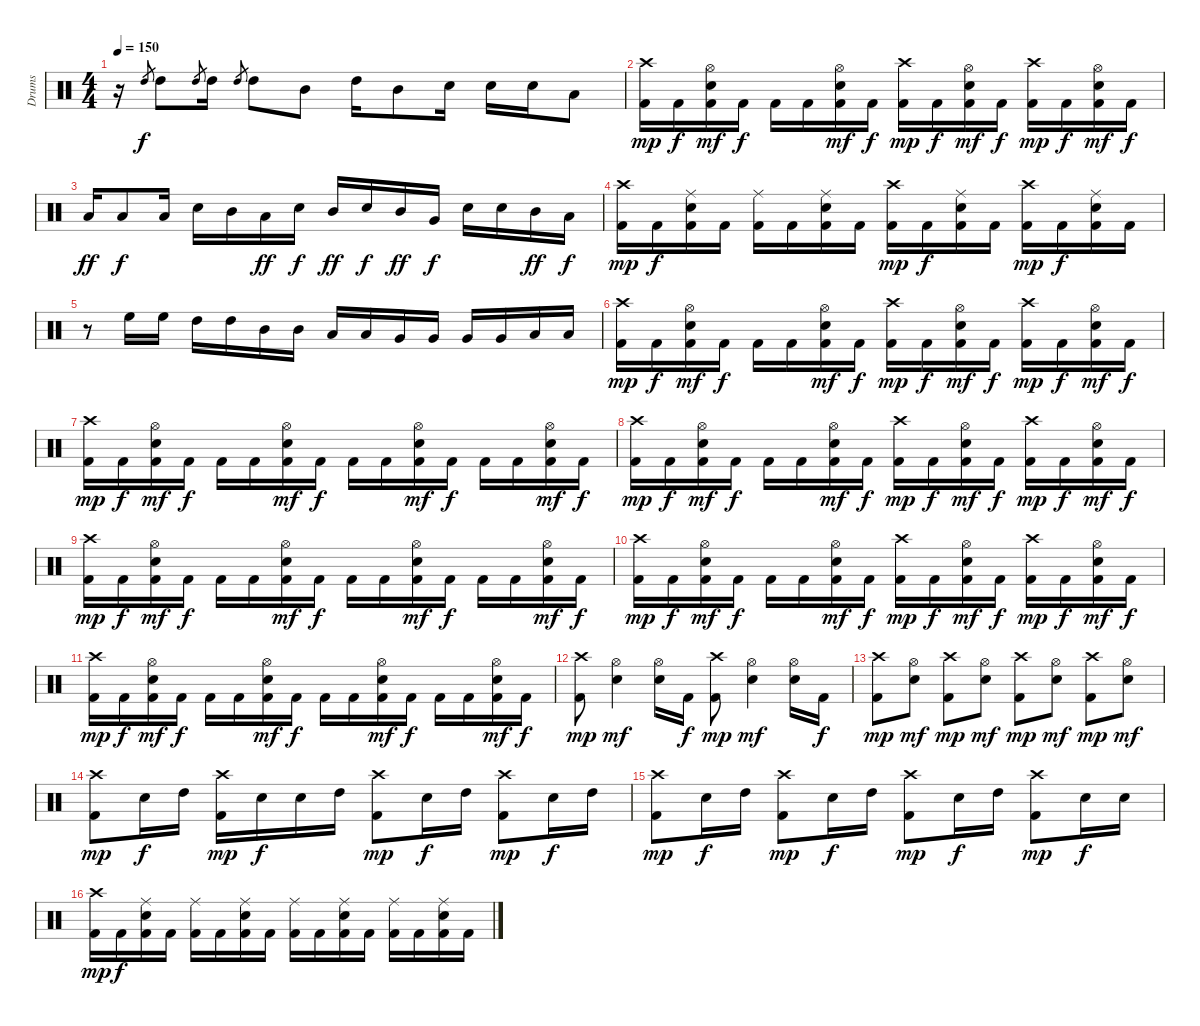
\track ("Drums" "Drums") {instrument percussion}
\staff {score}
\articulation defaults
\ts (4 4)
\tempo 150
\clef neutral
\ks c
r.16{dy f} "High Tom (hit)".8{gr} "High Tom (hit)".8 "High Tom (hit)".8{gr} "High Tom (hit)".16 "High Tom (hit)".8{gr} "High Tom (hit)".8 "Mid Tom (hit)".8 "High Tom (hit)".16 "Mid Tom (hit)".8 "Electric Snare (hit)".16 "Electric Snare (hit)".16 "Electric Snare (hit)".16 "Low Tom (hit)".8 |
("Crash high (hit)" "Kick (hit) 2").16{dy mp} "Kick (hit) 2".16{dy f} ("Hi-Hat (open)" "Electric Snare (hit)" "Kick (hit) 2").16{dy mf} "Kick (hit) 2".16{dy f} "Kick (hit) 2".16 "Kick (hit) 2".16 ("Hi-Hat (open)" "Electric Snare (hit)" "Kick (hit) 2").16{dy mf} "Kick (hit) 2".16{dy f} ("Crash high (hit)" "Kick (hit) 2").16{dy mp} "Kick (hit) 2".16{dy f} ("Hi-Hat (open)" "Electric Snare (hit)" "Kick (hit) 2").16{dy mf} "Kick (hit) 2".16{dy f} ("Crash high (hit)" "Kick (hit) 2").16{dy mp} "Kick (hit) 2".16{dy f} ("Hi-Hat (open)" "Electric Snare (hit)" "Kick (hit) 2").16{dy mf} "Kick (hit) 2".16{dy f} |
"Low Tom (hit)".16{dy ff} "Low Tom (hit)".8{dy f} "Low Tom (hit)".16 "Electric Snare (hit)".16 "Mid Tom (hit)".16 "Low Tom (hit)".16{dy ff} "Electric Snare (hit)".16{dy f} "Mid Tom (hit)".16{dy ff} "Electric Snare (hit)".16{dy f} "Mid Tom (hit)".16{dy ff} "Very Low Tom (hit)".16{dy f} "Electric Snare (hit)".16 "Electric Snare (hit)".16 "Mid Tom (hit)".16{dy ff} "Low Tom (hit)".16{dy f} |
("Crash high (hit)" "Kick (hit) 2").16{dy mp} "Kick (hit) 2".16{dy f} ("Ride (middle)" "Electric Snare (hit)" "Kick (hit) 2").16 "Kick (hit) 2".16 ("Ride (middle)" "Kick (hit) 2").16 "Kick (hit) 2".16 ("Ride (middle)" "Electric Snare (hit)" "Kick (hit) 2").16 "Kick (hit) 2".16 ("Crash high (hit)" "Kick (hit) 2").16{dy mp} "Kick (hit) 2".16{dy f} ("Ride (middle)" "Electric Snare (hit)" "Kick (hit) 2").16 "Kick (hit) 2".16 ("Crash high (hit)" "Kick (hit) 2").16{dy mp} "Kick (hit) 2".16{dy f} ("Ride (middle)" "Electric Snare (hit)" "Kick (hit) 2").16 "Kick (hit) 2".16 |
r.8 "High Floor Tom (hit)".16 "High Floor Tom (hit)".16 "High Tom (hit)".16 "High Tom (hit)".16 "Mid Tom (hit)".16 "Mid Tom (hit)".16 "Low Tom (hit)".16 "Low Tom (hit)".16 "Very Low Tom (hit)".16 "Very Low Tom (hit)".16 "Very Low Tom (hit)".16 "Very Low Tom (hit)".16 "Low Floor Tom (hit)".16 "Low Floor Tom (hit)".16 |
("Crash high (hit)" "Kick (hit) 2").16{dy mp} "Kick (hit) 2".16{dy f} ("Hi-Hat (open)" "Electric Snare (hit)" "Kick (hit) 2").16{dy mf} "Kick (hit) 2".16{dy f} "Kick (hit) 2".16 "Kick (hit) 2".16 ("Hi-Hat (open)" "Electric Snare (hit)" "Kick (hit) 2").16{dy mf} "Kick (hit) 2".16{dy f} ("Crash high (hit)" "Kick (hit) 2").16{dy mp} "Kick (hit) 2".16{dy f} ("Hi-Hat (open)" "Electric Snare (hit)" "Kick (hit) 2").16{dy mf} "Kick (hit) 2".16{dy f} ("Crash high (hit)" "Kick (hit) 2").16{dy mp} "Kick (hit) 2".16{dy f} ("Hi-Hat (open)" "Electric Snare (hit)" "Kick (hit) 2").16{dy mf} "Kick (hit) 2".16{dy f} |
("Crash high (hit)" "Kick (hit) 2").16{dy mp} "Kick (hit) 2".16{dy f} ("Hi-Hat (open)" "Electric Snare (hit)" "Kick (hit) 2").16{dy mf} "Kick (hit) 2".16{dy f} "Kick (hit) 2".16 "Kick (hit) 2".16 ("Hi-Hat (open)" "Electric Snare (hit)" "Kick (hit) 2").16{dy mf} "Kick (hit) 2".16{dy f} "Kick (hit) 2".16 "Kick (hit) 2".16 ("Hi-Hat (open)" "Electric Snare (hit)" "Kick (hit) 2").16{dy mf} "Kick (hit) 2".16{dy f} "Kick (hit) 2".16 "Kick (hit) 2".16 ("Hi-Hat (open)" "Electric Snare (hit)" "Kick (hit) 2").16{dy mf} "Kick (hit) 2".16{dy f} |
("Crash high (hit)" "Kick (hit) 2").16{dy mp} "Kick (hit) 2".16{dy f} ("Hi-Hat (open)" "Electric Snare (hit)" "Kick (hit) 2").16{dy mf} "Kick (hit) 2".16{dy f} "Kick (hit) 2".16 "Kick (hit) 2".16 ("Hi-Hat (open)" "Electric Snare (hit)" "Kick (hit) 2").16{dy mf} "Kick (hit) 2".16{dy f} ("Crash high (hit)" "Kick (hit) 2").16{dy mp} "Kick (hit) 2".16{dy f} ("Hi-Hat (open)" "Electric Snare (hit)" "Kick (hit) 2").16{dy mf} "Kick (hit) 2".16{dy f} ("Crash high (hit)" "Kick (hit) 2").16{dy mp} "Kick (hit) 2".16{dy f} ("Hi-Hat (open)" "Electric Snare (hit)" "Kick (hit) 2").16{dy mf} "Kick (hit) 2".16{dy f} |
("Crash high (hit)" "Kick (hit) 2").16{dy mp} "Kick (hit) 2".16{dy f} ("Hi-Hat (open)" "Electric Snare (hit)" "Kick (hit) 2").16{dy mf} "Kick (hit) 2".16{dy f} "Kick (hit) 2".16 "Kick (hit) 2".16 ("Hi-Hat (open)" "Electric Snare (hit)" "Kick (hit) 2").16{dy mf} "Kick (hit) 2".16{dy f} "Kick (hit) 2".16 "Kick (hit) 2".16 ("Hi-Hat (open)" "Electric Snare (hit)" "Kick (hit) 2").16{dy mf} "Kick (hit) 2".16{dy f} "Kick (hit) 2".16 "Kick (hit) 2".16 ("Hi-Hat (open)" "Electric Snare (hit)" "Kick (hit) 2").16{dy mf} "Kick (hit) 2".16{dy f} |
("Crash high (hit)" "Kick (hit) 2").16{dy mp} "Kick (hit) 2".16{dy f} ("Hi-Hat (open)" "Electric Snare (hit)" "Kick (hit) 2").16{dy mf} "Kick (hit) 2".16{dy f} "Kick (hit) 2".16 "Kick (hit) 2".16 ("Hi-Hat (open)" "Electric Snare (hit)" "Kick (hit) 2").16{dy mf} "Kick (hit) 2".16{dy f} ("Crash high (hit)" "Kick (hit) 2").16{dy mp} "Kick (hit) 2".16{dy f} ("Hi-Hat (open)" "Electric Snare (hit)" "Kick (hit) 2").16{dy mf} "Kick (hit) 2".16{dy f} ("Crash high (hit)" "Kick (hit) 2").16{dy mp} "Kick (hit) 2".16{dy f} ("Hi-Hat (open)" "Electric Snare (hit)" "Kick (hit) 2").16{dy mf} "Kick (hit) 2".16{dy f} |
("Crash high (hit)" "Kick (hit) 2").16{dy mp} "Kick (hit) 2".16{dy f} ("Hi-Hat (open)" "Electric Snare (hit)" "Kick (hit) 2").16{dy mf} "Kick (hit) 2".16{dy f} "Kick (hit) 2".16 "Kick (hit) 2".16 ("Hi-Hat (open)" "Electric Snare (hit)" "Kick (hit) 2").16{dy mf} "Kick (hit) 2".16{dy f} "Kick (hit) 2".16 "Kick (hit) 2".16 ("Hi-Hat (open)" "Electric Snare (hit)" "Kick (hit) 2").16{dy mf} "Kick (hit) 2".16{dy f} "Kick (hit) 2".16 "Kick (hit) 2".16 ("Hi-Hat (open)" "Electric Snare (hit)" "Kick (hit) 2").16{dy mf} "Kick (hit) 2".16{dy f} |
("Crash high (hit)" "Kick (hit) 2").8{dy mp} ("Hi-Hat (open)" "Electric Snare (hit)").4{dy mf} ("Hi-Hat (open)" "Electric Snare (hit)").16 "Kick (hit) 2".16{dy f} ("Crash high (hit)" "Kick (hit) 2").8{dy mp} ("Hi-Hat (open)" "Electric Snare (hit)").4{dy mf} ("Hi-Hat (open)" "Electric Snare (hit)").16 "Kick (hit) 2".16{dy f} |
("Crash high (hit)" "Kick (hit) 2").8{dy mp} ("Hi-Hat (open)" "Electric Snare (hit)").8{dy mf} ("Crash high (hit)" "Kick (hit) 2").8{dy mp} ("Hi-Hat (open)" "Electric Snare (hit)").8{dy mf} ("Crash high (hit)" "Kick (hit) 2").8{dy mp} ("Hi-Hat (open)" "Electric Snare (hit)").8{dy mf} ("Crash high (hit)" "Kick (hit) 2").8{dy mp} ("Hi-Hat (open)" "Electric Snare (hit)").8{dy mf} |
("Crash high (hit)" "Kick (hit) 2").8{dy mp} "Electric Snare (hit)".16{dy f} "High Tom (hit)".16 ("Crash high (hit)" "Kick (hit) 2").16{dy mp} "Electric Snare (hit)".16{dy f} "Electric Snare (hit)".16 "High Tom (hit)".16 ("Crash high (hit)" "Kick (hit) 2").8{dy mp} "Electric Snare (hit)".16{dy f} "High Tom (hit)".16 ("Crash high (hit)" "Kick (hit) 2").8{dy mp} "Electric Snare (hit)".16{dy f} "High Tom (hit)".16 |
("Crash high (hit)" "Kick (hit) 2").8{dy mp} "Electric Snare (hit)".16{dy f} "High Tom (hit)".16 ("Crash high (hit)" "Kick (hit) 2").8{dy mp} "Electric Snare (hit)".16{dy f} "High Tom (hit)".16 ("Crash high (hit)" "Kick (hit) 2").8{dy mp} "Electric Snare (hit)".16{dy f} "High Tom (hit)".16 ("Crash high (hit)" "Kick (hit) 2").8{dy mp} "Electric Snare (hit)".16{dy f} "Electric Snare (hit)".16 |
("Crash high (hit)" "Kick (hit) 2").16{dy mp} "Kick (hit) 2".16{dy f} ("Ride (middle)" "Electric Snare (hit)" "Kick (hit) 2").16 "Kick (hit) 2".16 ("Ride (middle)" "Kick (hit) 2").16 "Kick (hit) 2".16 ("Ride (middle)" "Electric Snare (hit)" "Kick (hit) 2").16 "Kick (hit) 2".16 ("Ride (middle)" "Kick (hit) 2").16 "Kick (hit) 2".16 ("Ride (middle)" "Electric Snare (hit)" "Kick (hit) 2").16 "Kick (hit) 2".16 ("Ride (middle)" "Kick (hit) 2").16 "Kick (hit) 2".16 ("Ride (middle)" "Electric Snare (hit)" "Kick (hit) 2").16 "Kick (hit) 2".16
